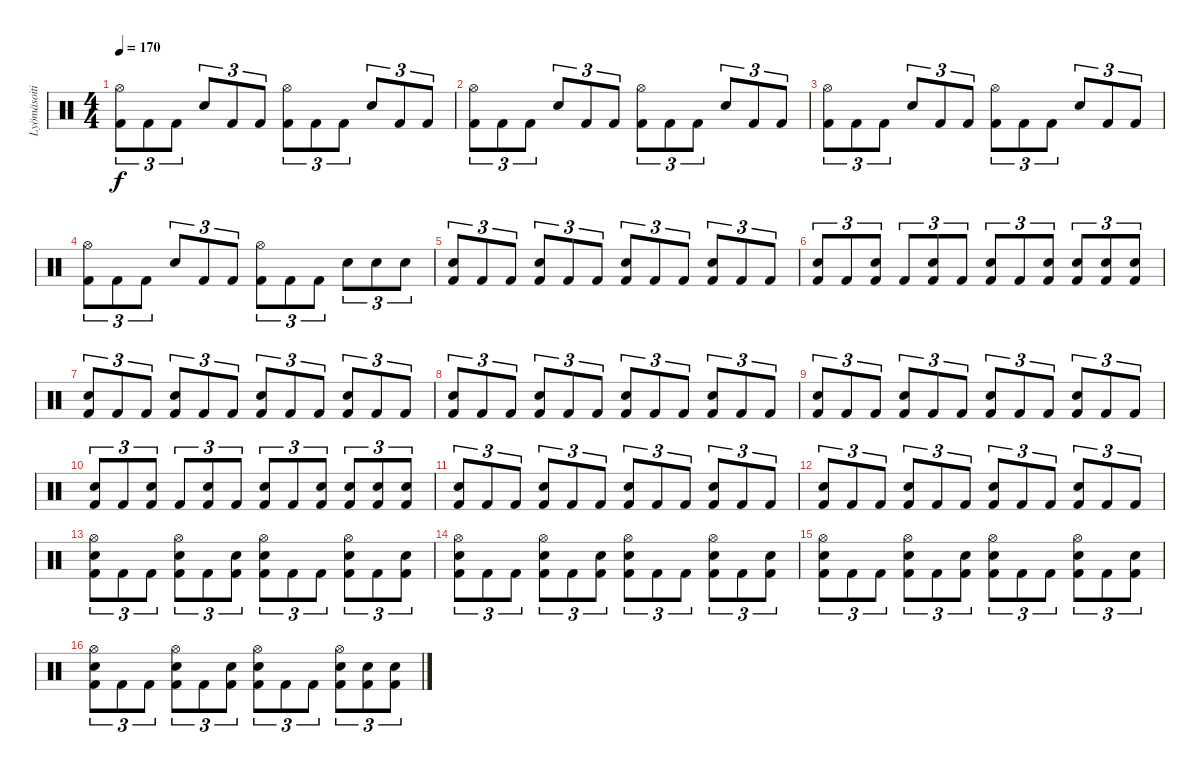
\track ("Lyömäsoitin" "Lyömäsoiti") {instrument percussion}
\staff {score}
\articulation defaults
\ts (4 4)
\tempo 170
\clef neutral
\ks c
("Hi-Hat (open)" "Kick (hit) 2").8{tu (3 2) dy f} "Kick (hit) 2".8{tu (3 2)} "Kick (hit) 2".8{tu (3 2)} "Snare (hit) 2".8{tu (3 2)} "Kick (hit) 2".8{tu (3 2)} "Kick (hit) 2".8{tu (3 2)} ("Hi-Hat (open)" "Kick (hit) 2").8{tu (3 2)} "Kick (hit) 2".8{tu (3 2)} "Kick (hit) 2".8{tu (3 2)} "Snare (hit) 2".8{tu (3 2)} "Kick (hit) 2".8{tu (3 2)} "Kick (hit) 2".8{tu (3 2)} |
("Hi-Hat (open)" "Kick (hit) 2").8{tu (3 2)} "Kick (hit) 2".8{tu (3 2)} "Kick (hit) 2".8{tu (3 2)} "Snare (hit) 2".8{tu (3 2)} "Kick (hit) 2".8{tu (3 2)} "Kick (hit) 2".8{tu (3 2)} ("Hi-Hat (open)" "Kick (hit) 2").8{tu (3 2)} "Kick (hit) 2".8{tu (3 2)} "Kick (hit) 2".8{tu (3 2)} "Snare (hit) 2".8{tu (3 2)} "Kick (hit) 2".8{tu (3 2)} "Kick (hit) 2".8{tu (3 2)} |
("Hi-Hat (open)" "Kick (hit) 2").8{tu (3 2)} "Kick (hit) 2".8{tu (3 2)} "Kick (hit) 2".8{tu (3 2)} "Snare (hit) 2".8{tu (3 2)} "Kick (hit) 2".8{tu (3 2)} "Kick (hit) 2".8{tu (3 2)} ("Hi-Hat (open)" "Kick (hit) 2").8{tu (3 2)} "Kick (hit) 2".8{tu (3 2)} "Kick (hit) 2".8{tu (3 2)} "Snare (hit) 2".8{tu (3 2)} "Kick (hit) 2".8{tu (3 2)} "Kick (hit) 2".8{tu (3 2)} |
("Hi-Hat (open)" "Kick (hit) 2").8{tu (3 2)} "Kick (hit) 2".8{tu (3 2)} "Kick (hit) 2".8{tu (3 2)} "Snare (hit) 2".8{tu (3 2)} "Kick (hit) 2".8{tu (3 2)} "Kick (hit) 2".8{tu (3 2)} ("Hi-Hat (open)" "Kick (hit) 2").8{tu (3 2)} "Kick (hit) 2".8{tu (3 2)} "Kick (hit) 2".8{tu (3 2)} "Snare (hit) 2".8{tu (3 2)} "Snare (hit) 2".8{tu (3 2)} "Snare (hit) 2".8{tu (3 2)} |
("Snare (hit) 2" "Kick (hit) 2").8{tu (3 2)} "Kick (hit) 2".8{tu (3 2)} "Kick (hit) 2".8{tu (3 2)} ("Snare (hit) 2" "Kick (hit) 2").8{tu (3 2)} "Kick (hit) 2".8{tu (3 2)} "Kick (hit) 2".8{tu (3 2)} ("Snare (hit) 2" "Kick (hit) 2").8{tu (3 2)} "Kick (hit) 2".8{tu (3 2)} "Kick (hit) 2".8{tu (3 2)} ("Snare (hit) 2" "Kick (hit) 2").8{tu (3 2)} "Kick (hit) 2".8{tu (3 2)} "Kick (hit) 2".8{tu (3 2)} |
("Snare (hit) 2" "Kick (hit) 2").8{tu (3 2)} "Kick (hit) 2".8{tu (3 2)} ("Snare (hit) 2" "Kick (hit) 2").8{tu (3 2)} "Kick (hit) 2".8{tu (3 2)} ("Snare (hit) 2" "Kick (hit) 2").8{tu (3 2)} "Kick (hit) 2".8{tu (3 2)} ("Snare (hit) 2" "Kick (hit) 2").8{tu (3 2)} "Kick (hit) 2".8{tu (3 2)} ("Snare (hit) 2" "Kick (hit) 2").8{tu (3 2)} ("Snare (hit) 2" "Kick (hit) 2").8{tu (3 2)} ("Snare (hit) 2" "Kick (hit) 2").8{tu (3 2)} ("Snare (hit) 2" "Kick (hit) 2").8{tu (3 2)} |
("Snare (hit) 2" "Kick (hit) 2").8{tu (3 2)} "Kick (hit) 2".8{tu (3 2)} "Kick (hit) 2".8{tu (3 2)} ("Snare (hit) 2" "Kick (hit) 2").8{tu (3 2)} "Kick (hit) 2".8{tu (3 2)} "Kick (hit) 2".8{tu (3 2)} ("Snare (hit) 2" "Kick (hit) 2").8{tu (3 2)} "Kick (hit) 2".8{tu (3 2)} "Kick (hit) 2".8{tu (3 2)} ("Snare (hit) 2" "Kick (hit) 2").8{tu (3 2)} "Kick (hit) 2".8{tu (3 2)} "Kick (hit) 2".8{tu (3 2)} |
("Snare (hit) 2" "Kick (hit) 2").8{tu (3 2)} "Kick (hit) 2".8{tu (3 2)} "Kick (hit) 2".8{tu (3 2)} ("Snare (hit) 2" "Kick (hit) 2").8{tu (3 2)} "Kick (hit) 2".8{tu (3 2)} "Kick (hit) 2".8{tu (3 2)} ("Snare (hit) 2" "Kick (hit) 2").8{tu (3 2)} "Kick (hit) 2".8{tu (3 2)} "Kick (hit) 2".8{tu (3 2)} ("Snare (hit) 2" "Kick (hit) 2").8{tu (3 2)} "Kick (hit) 2".8{tu (3 2)} "Kick (hit) 2".8{tu (3 2)} |
("Snare (hit) 2" "Kick (hit) 2").8{tu (3 2)} "Kick (hit) 2".8{tu (3 2)} "Kick (hit) 2".8{tu (3 2)} ("Snare (hit) 2" "Kick (hit) 2").8{tu (3 2)} "Kick (hit) 2".8{tu (3 2)} "Kick (hit) 2".8{tu (3 2)} ("Snare (hit) 2" "Kick (hit) 2").8{tu (3 2)} "Kick (hit) 2".8{tu (3 2)} "Kick (hit) 2".8{tu (3 2)} ("Snare (hit) 2" "Kick (hit) 2").8{tu (3 2)} "Kick (hit) 2".8{tu (3 2)} "Kick (hit) 2".8{tu (3 2)} |
("Snare (hit) 2" "Kick (hit) 2").8{tu (3 2)} "Kick (hit) 2".8{tu (3 2)} ("Snare (hit) 2" "Kick (hit) 2").8{tu (3 2)} "Kick (hit) 2".8{tu (3 2)} ("Snare (hit) 2" "Kick (hit) 2").8{tu (3 2)} "Kick (hit) 2".8{tu (3 2)} ("Snare (hit) 2" "Kick (hit) 2").8{tu (3 2)} "Kick (hit) 2".8{tu (3 2)} ("Snare (hit) 2" "Kick (hit) 2").8{tu (3 2)} ("Snare (hit) 2" "Kick (hit) 2").8{tu (3 2)} ("Snare (hit) 2" "Kick (hit) 2").8{tu (3 2)} ("Snare (hit) 2" "Kick (hit) 2").8{tu (3 2)} |
("Snare (hit) 2" "Kick (hit) 2").8{tu (3 2)} "Kick (hit) 2".8{tu (3 2)} "Kick (hit) 2".8{tu (3 2)} ("Snare (hit) 2" "Kick (hit) 2").8{tu (3 2)} "Kick (hit) 2".8{tu (3 2)} "Kick (hit) 2".8{tu (3 2)} ("Snare (hit) 2" "Kick (hit) 2").8{tu (3 2)} "Kick (hit) 2".8{tu (3 2)} "Kick (hit) 2".8{tu (3 2)} ("Snare (hit) 2" "Kick (hit) 2").8{tu (3 2)} "Kick (hit) 2".8{tu (3 2)} "Kick (hit) 2".8{tu (3 2)} |
("Snare (hit) 2" "Kick (hit) 2").8{tu (3 2)} "Kick (hit) 2".8{tu (3 2)} "Kick (hit) 2".8{tu (3 2)} ("Snare (hit) 2" "Kick (hit) 2").8{tu (3 2)} "Kick (hit) 2".8{tu (3 2)} "Kick (hit) 2".8{tu (3 2)} ("Snare (hit) 2" "Kick (hit) 2").8{tu (3 2)} "Kick (hit) 2".8{tu (3 2)} "Kick (hit) 2".8{tu (3 2)} ("Snare (hit) 2" "Kick (hit) 2").8{tu (3 2)} "Kick (hit) 2".8{tu (3 2)} "Kick (hit) 2".8{tu (3 2)} |
("Snare (hit) 2" "Kick (hit) 2" "Hi-Hat (open)").8{tu (3 2)} "Kick (hit) 2".8{tu (3 2)} "Kick (hit) 2".8{tu (3 2)} ("Snare (hit) 2" "Kick (hit) 2" "Hi-Hat (open)").8{tu (3 2)} "Kick (hit) 2".8{tu (3 2)} ("Snare (hit) 2" "Kick (hit) 2").8{tu (3 2)} ("Snare (hit) 2" "Kick (hit) 2" "Hi-Hat (open)").8{tu (3 2)} "Kick (hit) 2".8{tu (3 2)} "Kick (hit) 2".8{tu (3 2)} ("Snare (hit) 2" "Kick (hit) 2" "Hi-Hat (open)").8{tu (3 2)} "Kick (hit) 2".8{tu (3 2)} ("Snare (hit) 2" "Kick (hit) 2").8{tu (3 2)} |
("Snare (hit) 2" "Kick (hit) 2" "Hi-Hat (open)").8{tu (3 2)} "Kick (hit) 2".8{tu (3 2)} "Kick (hit) 2".8{tu (3 2)} ("Snare (hit) 2" "Kick (hit) 2" "Hi-Hat (open)").8{tu (3 2)} "Kick (hit) 2".8{tu (3 2)} ("Snare (hit) 2" "Kick (hit) 2").8{tu (3 2)} ("Snare (hit) 2" "Kick (hit) 2" "Hi-Hat (open)").8{tu (3 2)} "Kick (hit) 2".8{tu (3 2)} "Kick (hit) 2".8{tu (3 2)} ("Snare (hit) 2" "Kick (hit) 2" "Hi-Hat (open)").8{tu (3 2)} "Kick (hit) 2".8{tu (3 2)} ("Snare (hit) 2" "Kick (hit) 2").8{tu (3 2)} |
("Snare (hit) 2" "Kick (hit) 2" "Hi-Hat (open)").8{tu (3 2)} "Kick (hit) 2".8{tu (3 2)} "Kick (hit) 2".8{tu (3 2)} ("Snare (hit) 2" "Kick (hit) 2" "Hi-Hat (open)").8{tu (3 2)} "Kick (hit) 2".8{tu (3 2)} ("Snare (hit) 2" "Kick (hit) 2").8{tu (3 2)} ("Snare (hit) 2" "Kick (hit) 2" "Hi-Hat (open)").8{tu (3 2)} "Kick (hit) 2".8{tu (3 2)} "Kick (hit) 2".8{tu (3 2)} ("Snare (hit) 2" "Kick (hit) 2" "Hi-Hat (open)").8{tu (3 2)} "Kick (hit) 2".8{tu (3 2)} ("Snare (hit) 2" "Kick (hit) 2").8{tu (3 2)} |
("Snare (hit) 2" "Kick (hit) 2" "Hi-Hat (open)").8{tu (3 2)} "Kick (hit) 2".8{tu (3 2)} "Kick (hit) 2".8{tu (3 2)} ("Snare (hit) 2" "Kick (hit) 2" "Hi-Hat (open)").8{tu (3 2)} "Kick (hit) 2".8{tu (3 2)} ("Snare (hit) 2" "Kick (hit) 2").8{tu (3 2)} ("Snare (hit) 2" "Kick (hit) 2" "Hi-Hat (open)").8{tu (3 2)} "Kick (hit) 2".8{tu (3 2)} "Kick (hit) 2".8{tu (3 2)} ("Snare (hit) 2" "Kick (hit) 2" "Hi-Hat (open)").8{tu (3 2)} ("Snare (hit) 2" "Kick (hit) 2").8{tu (3 2)} ("Snare (hit) 2" "Kick (hit) 2").8{tu (3 2)}
